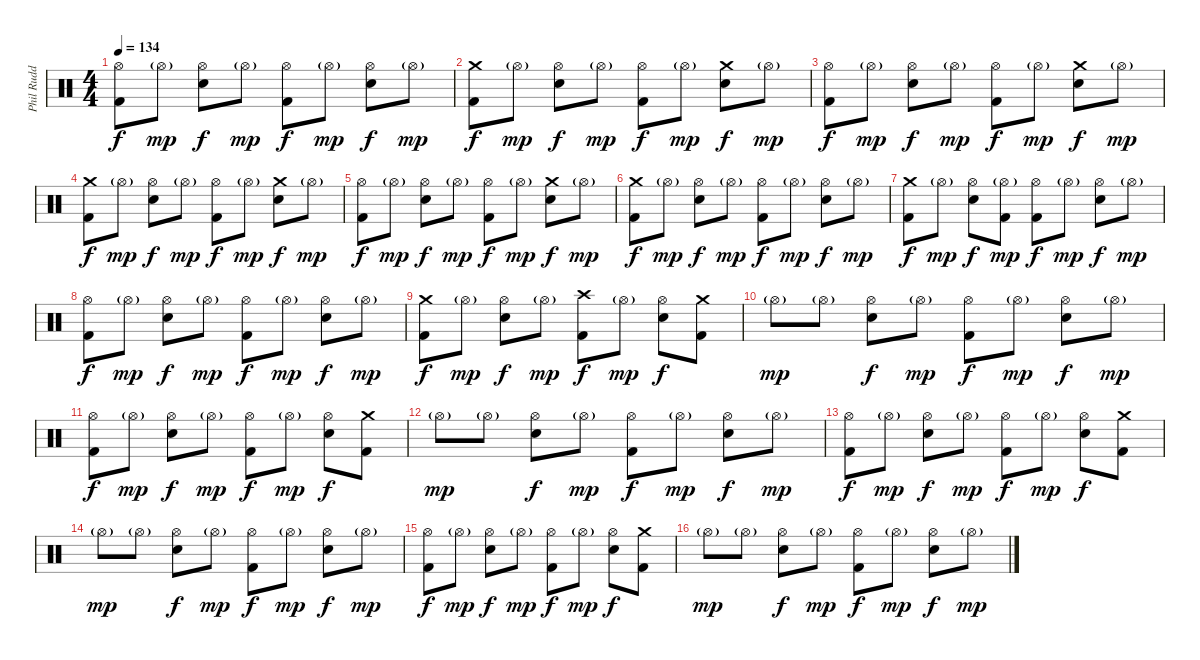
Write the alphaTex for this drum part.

\track ("Phil Rudd" "Phil Rudd") {instrument percussion}
\staff {score}
\articulation defaults
\ts (4 4)
\tempo 134
\clef neutral
\ks c
("Hi-Hat (open)" "Kick (hit) 2").8{dy f} "Hi-Hat (open)"{g}.8{dy mp} ("Hi-Hat (open)" "Snare (hit) 2").8{dy f} "Hi-Hat (open)"{g}.8{dy mp} ("Hi-Hat (open)" "Kick (hit) 2").8{dy f} "Hi-Hat (open)"{g}.8{dy mp} ("Hi-Hat (open)" "Snare (hit) 2").8{dy f} "Hi-Hat (open)"{g}.8{dy mp} |
("Crash medium (hit)" "Kick (hit) 2").8{dy f} "Hi-Hat (open)"{g}.8{dy mp} ("Hi-Hat (open)" "Snare (hit) 2").8{dy f} "Hi-Hat (open)"{g}.8{dy mp} ("Hi-Hat (open)" "Kick (hit) 2").8{dy f} "Hi-Hat (open)"{g}.8{dy mp} ("Crash medium (hit)" "Snare (hit) 2").8{dy f} "Hi-Hat (open)"{g}.8{dy mp} |
("Hi-Hat (open)" "Kick (hit) 2").8{dy f} "Hi-Hat (open)"{g}.8{dy mp} ("Hi-Hat (open)" "Snare (hit) 2").8{dy f} "Hi-Hat (open)"{g}.8{dy mp} ("Hi-Hat (open)" "Kick (hit) 2").8{dy f} "Hi-Hat (open)"{g}.8{dy mp} ("Crash medium (hit)" "Snare (hit) 2").8{dy f} "Hi-Hat (open)"{g}.8{dy mp} |
("Crash medium (hit)" "Kick (hit) 2").8{dy f} "Hi-Hat (open)"{g}.8{dy mp} ("Hi-Hat (open)" "Snare (hit) 2").8{dy f} "Hi-Hat (open)"{g}.8{dy mp} ("Hi-Hat (open)" "Kick (hit) 2").8{dy f} "Hi-Hat (open)"{g}.8{dy mp} ("Crash medium (hit)" "Snare (hit) 2").8{dy f} "Hi-Hat (open)"{g}.8{dy mp} |
("Hi-Hat (open)" "Kick (hit) 2").8{dy f} "Hi-Hat (open)"{g}.8{dy mp} ("Hi-Hat (open)" "Snare (hit) 2").8{dy f} "Hi-Hat (open)"{g}.8{dy mp} ("Hi-Hat (open)" "Kick (hit) 2").8{dy f} "Hi-Hat (open)"{g}.8{dy mp} ("Crash medium (hit)" "Snare (hit) 2").8{dy f} "Hi-Hat (open)"{g}.8{dy mp} |
("Crash medium (hit)" "Kick (hit) 2").8{dy f} "Hi-Hat (open)"{g}.8{dy mp} ("Hi-Hat (open)" "Snare (hit) 2").8{dy f} "Hi-Hat (open)"{g}.8{dy mp} ("Hi-Hat (open)" "Kick (hit) 2").8{dy f} "Hi-Hat (open)"{g}.8{dy mp} ("Hi-Hat (open)" "Snare (hit) 2").8{dy f} "Hi-Hat (open)"{g}.8{dy mp} |
("Crash medium (hit)" "Kick (hit) 2").8{dy f} "Hi-Hat (open)"{g}.8{dy mp} ("Hi-Hat (open)" "Snare (hit) 2").8{dy f} ("Hi-Hat (open)"{g} "Kick (hit) 2").8{dy mp} ("Hi-Hat (open)" "Kick (hit) 2").8{dy f} "Hi-Hat (open)"{g}.8{dy mp} ("Hi-Hat (open)" "Snare (hit) 2").8{dy f} "Hi-Hat (open)"{g}.8{dy mp} |
("Hi-Hat (open)" "Kick (hit) 2").8{dy f} "Hi-Hat (open)"{g}.8{dy mp} ("Hi-Hat (open)" "Snare (hit) 2").8{dy f} "Hi-Hat (open)"{g}.8{dy mp} ("Hi-Hat (open)" "Kick (hit) 2").8{dy f} "Hi-Hat (open)"{g}.8{dy mp} ("Hi-Hat (open)" "Snare (hit) 2").8{dy f} "Hi-Hat (open)"{g}.8{dy mp} |
("Crash medium (hit)" "Kick (hit) 2").8{dy f} "Hi-Hat (open)"{g}.8{dy mp} ("Hi-Hat (open)" "Snare (hit) 2").8{dy f} "Hi-Hat (open)"{g}.8{dy mp} ("Crash high (hit)" "Kick (hit) 2").8{dy f} "Hi-Hat (open)"{g}.8{dy mp} ("Hi-Hat (open)" "Snare (hit) 2").8{dy f} ("Crash medium (hit)" "Kick (hit) 2").8 |
"Hi-Hat (open)"{g}.8{dy mp} "Hi-Hat (open)"{g}.8 ("Hi-Hat (open)" "Snare (hit) 2").8{dy f} "Hi-Hat (open)"{g}.8{dy mp} ("Hi-Hat (open)" "Kick (hit) 2").8{dy f} "Hi-Hat (open)"{g}.8{dy mp} ("Hi-Hat (open)" "Snare (hit) 2").8{dy f} "Hi-Hat (open)"{g}.8{dy mp} |
("Hi-Hat (open)" "Kick (hit) 2").8{dy f} "Hi-Hat (open)"{g}.8{dy mp} ("Hi-Hat (open)" "Snare (hit) 2").8{dy f} "Hi-Hat (open)"{g}.8{dy mp} ("Hi-Hat (open)" "Kick (hit) 2").8{dy f} "Hi-Hat (open)"{g}.8{dy mp} ("Hi-Hat (open)" "Snare (hit) 2").8{dy f} ("Crash medium (hit)" "Kick (hit) 2").8 |
"Hi-Hat (open)"{g}.8{dy mp} "Hi-Hat (open)"{g}.8 ("Hi-Hat (open)" "Snare (hit) 2").8{dy f} "Hi-Hat (open)"{g}.8{dy mp} ("Hi-Hat (open)" "Kick (hit) 2").8{dy f} "Hi-Hat (open)"{g}.8{dy mp} ("Hi-Hat (open)" "Snare (hit) 2").8{dy f} "Hi-Hat (open)"{g}.8{dy mp} |
("Hi-Hat (open)" "Kick (hit) 2").8{dy f} "Hi-Hat (open)"{g}.8{dy mp} ("Hi-Hat (open)" "Snare (hit) 2").8{dy f} "Hi-Hat (open)"{g}.8{dy mp} ("Hi-Hat (open)" "Kick (hit) 2").8{dy f} "Hi-Hat (open)"{g}.8{dy mp} ("Hi-Hat (open)" "Snare (hit) 2").8{dy f} ("Crash medium (hit)" "Kick (hit) 2").8 |
"Hi-Hat (open)"{g}.8{dy mp} "Hi-Hat (open)"{g}.8 ("Hi-Hat (open)" "Snare (hit) 2").8{dy f} "Hi-Hat (open)"{g}.8{dy mp} ("Hi-Hat (open)" "Kick (hit) 2").8{dy f} "Hi-Hat (open)"{g}.8{dy mp} ("Hi-Hat (open)" "Snare (hit) 2").8{dy f} "Hi-Hat (open)"{g}.8{dy mp} |
("Hi-Hat (open)" "Kick (hit) 2").8{dy f} "Hi-Hat (open)"{g}.8{dy mp} ("Hi-Hat (open)" "Snare (hit) 2").8{dy f} "Hi-Hat (open)"{g}.8{dy mp} ("Hi-Hat (open)" "Kick (hit) 2").8{dy f} "Hi-Hat (open)"{g}.8{dy mp} ("Hi-Hat (open)" "Snare (hit) 2").8{dy f} ("Crash medium (hit)" "Kick (hit) 2").8 |
"Hi-Hat (open)"{g}.8{dy mp} "Hi-Hat (open)"{g}.8 ("Hi-Hat (open)" "Snare (hit) 2").8{dy f} "Hi-Hat (open)"{g}.8{dy mp} ("Hi-Hat (open)" "Kick (hit) 2").8{dy f} "Hi-Hat (open)"{g}.8{dy mp} ("Hi-Hat (open)" "Snare (hit) 2").8{dy f} "Hi-Hat (open)"{g}.8{dy mp}
